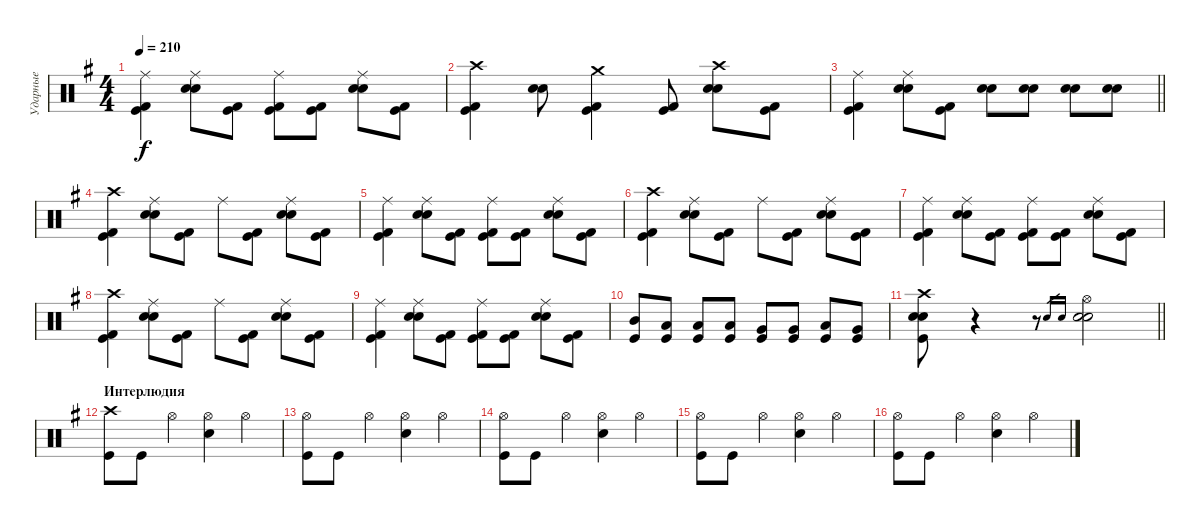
\track ("Ударные" "Ударные") {instrument percussion}
\staff {score}
\articulation defaults
\ts (4 4)
\tempo 210
\clef neutral
\ks g
("Ride (middle)" "Kick (hit) 2" "Kick (hit)").4{dy f} ("Ride (middle)" "Electric Snare (hit)" "Snare (hit) 2").8 ("Kick (hit) 2" "Kick (hit)").8 ("Ride (middle)" "Kick (hit) 2" "Kick (hit)").8 ("Kick (hit) 2" "Kick (hit)").8 ("Ride (middle)" "Electric Snare (hit)" "Snare (hit) 2").8 ("Kick (hit) 2" "Kick (hit)").8 |
("Crash high (hit)" "Kick (hit) 2" "Kick (hit)").4 ("Electric Snare (hit)" "Snare (hit) 2").8 ("Crash medium (hit)" "Kick (hit) 2" "Kick (hit)").4 ("Kick (hit) 2" "Kick (hit)").8 ("Crash high (hit)" "Electric Snare (hit)" "Snare (hit) 2").8 ("Kick (hit) 2" "Kick (hit)").8 |
\barLineRight lightlight
("Ride (middle)" "Kick (hit) 2" "Kick (hit)").4 ("Ride (middle)" "Electric Snare (hit)" "Snare (hit) 2").8 ("Kick (hit) 2" "Kick (hit)").8 ("Electric Snare (hit)" "Snare (hit) 2").8 ("Electric Snare (hit)" "Snare (hit) 2").8 ("Electric Snare (hit)" "Snare (hit) 2").8 ("Electric Snare (hit)" "Snare (hit) 2").8 |
("Crash high (hit)" "Kick (hit) 2" "Kick (hit)").4 ("Ride (middle)" "Electric Snare (hit)" "Snare (hit) 2").8 ("Kick (hit) 2" "Kick (hit)").8 "Ride (middle)".8 ("Kick (hit) 2" "Kick (hit)").8 ("Ride (middle)" "Electric Snare (hit)" "Snare (hit) 2").8 ("Kick (hit) 2" "Kick (hit)").8 |
("Ride (middle)" "Kick (hit) 2" "Kick (hit)").4 ("Ride (middle)" "Electric Snare (hit)" "Snare (hit) 2").8 ("Kick (hit) 2" "Kick (hit)").8 ("Ride (middle)" "Kick (hit) 2" "Kick (hit)").8 ("Kick (hit) 2" "Kick (hit)").8 ("Ride (middle)" "Electric Snare (hit)" "Snare (hit) 2").8 ("Kick (hit) 2" "Kick (hit)").8 |
("Crash high (hit)" "Kick (hit) 2" "Kick (hit)").4 ("Ride (middle)" "Electric Snare (hit)" "Snare (hit) 2").8 ("Kick (hit) 2" "Kick (hit)").8 "Ride (middle)".8 ("Kick (hit) 2" "Kick (hit)").8 ("Ride (middle)" "Electric Snare (hit)" "Snare (hit) 2").8 ("Kick (hit) 2" "Kick (hit)").8 |
("Ride (middle)" "Kick (hit) 2" "Kick (hit)").4 ("Ride (middle)" "Electric Snare (hit)" "Snare (hit) 2").8 ("Kick (hit) 2" "Kick (hit)").8 ("Ride (middle)" "Kick (hit) 2" "Kick (hit)").8 ("Kick (hit) 2" "Kick (hit)").8 ("Ride (middle)" "Electric Snare (hit)" "Snare (hit) 2").8 ("Kick (hit) 2" "Kick (hit)").8 |
("Crash high (hit)" "Kick (hit) 2" "Kick (hit)").4 ("Ride (middle)" "Electric Snare (hit)" "Snare (hit) 2").8 ("Kick (hit) 2" "Kick (hit)").8 "Ride (middle)".8 ("Kick (hit) 2" "Kick (hit)").8 ("Ride (middle)" "Electric Snare (hit)" "Snare (hit) 2").8 ("Kick (hit) 2" "Kick (hit)").8 |
("Ride (middle)" "Kick (hit) 2" "Kick (hit)").4 ("Ride (middle)" "Electric Snare (hit)" "Snare (hit) 2").8 ("Kick (hit) 2" "Kick (hit)").8 ("Ride (middle)" "Kick (hit) 2" "Kick (hit)").8 ("Kick (hit) 2" "Kick (hit)").8 ("Ride (middle)" "Electric Snare (hit)" "Snare (hit) 2").8 ("Kick (hit) 2" "Kick (hit)").8 |
("Mid Tom (hit)" "Kick (hit)").8 ("Low Tom (hit)" "Kick (hit)").8 ("Low Tom (hit)" "Kick (hit)").8 ("Low Tom (hit)" "Kick (hit)").8 ("Very Low Tom (hit)" "Kick (hit)").8 ("Very Low Tom (hit)" "Kick (hit)").8 ("Low Tom (hit)" "Kick (hit)").8 ("Very Low Tom (hit)" "Kick (hit)").8 |
\barLineRight lightlight
("Crash high (hit)" "Electric Snare (hit)" "Snare (hit) 2" "Kick (hit)").8 r.4 r.8 "Snare (hit) 2".16{gr} "Electric Snare (hit)".16{gr} ("Hi-Hat (open)" "Snare (hit) 2" "Electric Snare (hit)").2 |
\section ("" "Интерлюдия")
("Crash high (hit)" "Kick (hit)").8 "Kick (hit)".8 "Hi-Hat (open)".4 ("Hi-Hat (open)" "Electric Snare (hit)").4 "Hi-Hat (open)".4 |
("Hi-Hat (open)" "Kick (hit)").8 "Kick (hit)".8 "Hi-Hat (open)".4 ("Hi-Hat (open)" "Electric Snare (hit)").4 "Hi-Hat (open)".4 |
("Hi-Hat (open)" "Kick (hit)").8 "Kick (hit)".8 "Hi-Hat (open)".4 ("Hi-Hat (open)" "Electric Snare (hit)").4 "Hi-Hat (open)".4 |
("Hi-Hat (open)" "Kick (hit)").8 "Kick (hit)".8 "Hi-Hat (open)".4 ("Hi-Hat (open)" "Electric Snare (hit)").4 "Hi-Hat (open)".4 |
("Hi-Hat (open)" "Kick (hit)").8 "Kick (hit)".8 "Hi-Hat (open)".4 ("Hi-Hat (open)" "Electric Snare (hit)").4 "Hi-Hat (open)".4
